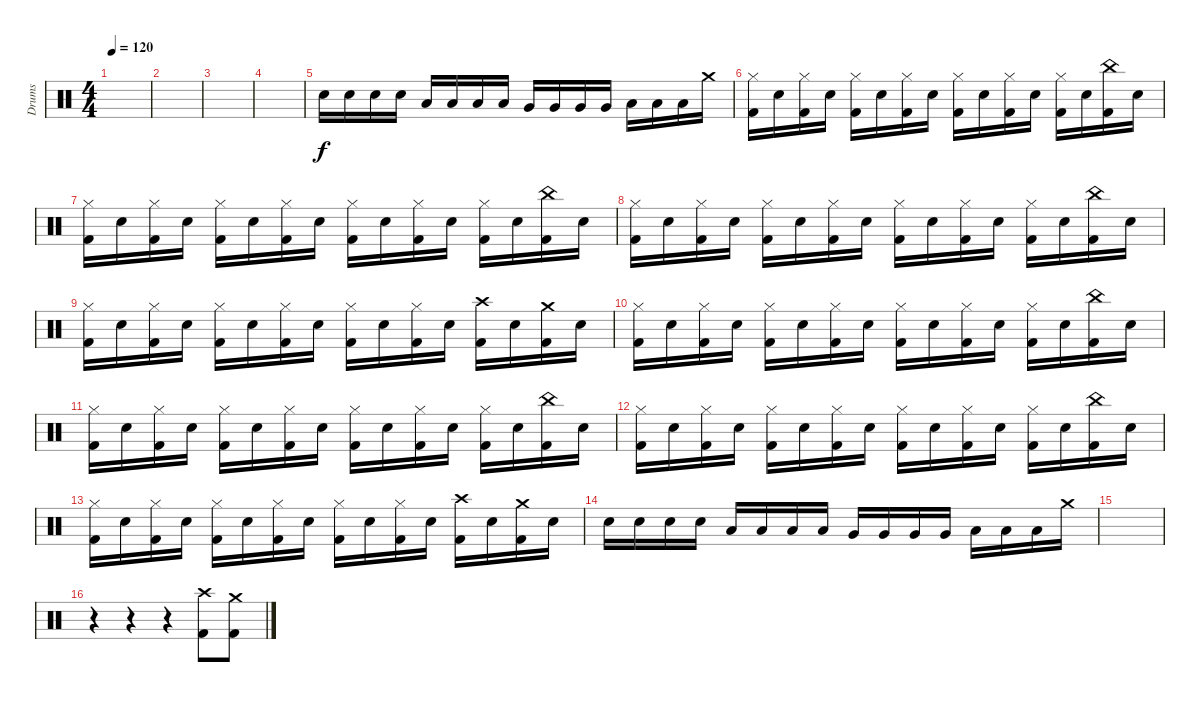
\track ("Drums" "Drums") {instrument percussion}
\staff {score}
\articulation defaults
\ts (4 4)
\tempo 120
\clef neutral
\ks c
|
|
|
|
"Snare (hit) 2".16 "Snare (hit) 2".16 "Snare (hit) 2".16 "Snare (hit) 2".16 "Low Tom (hit)".16 "Low Tom (hit)".16 "Low Tom (hit)".16 "Low Tom (hit)".16 "Very Low Tom (hit)".16 "Very Low Tom (hit)".16 "Very Low Tom (hit)".16 "Very Low Tom (hit)".16 "Low Floor Tom (hit)".16 "Low Floor Tom (hit)".16 "Low Floor Tom (hit)".16 "Crash medium (hit)".16 |
("Hi-Hat (closed)" "Kick (hit) 2").16 "Snare (hit) 2".16 ("Hi-Hat (closed)" "Kick (hit) 2").16 "Snare (hit) 2".16 ("Hi-Hat (closed)" "Kick (hit) 2").16 "Snare (hit) 2".16 ("Hi-Hat (closed)" "Kick (hit) 2").16 "Snare (hit) 2".16 ("Hi-Hat (closed)" "Kick (hit) 2").16 "Snare (hit) 2".16 ("Hi-Hat (closed)" "Kick (hit) 2").16 "Snare (hit) 2".16 ("Hi-Hat (closed)" "Kick (hit) 2").16 "Snare (hit) 2".16 ("China (hit)" "Kick (hit) 2").16 "Snare (hit) 2".16 |
("Hi-Hat (closed)" "Kick (hit) 2").16 "Snare (hit) 2".16 ("Hi-Hat (closed)" "Kick (hit) 2").16 "Snare (hit) 2".16 ("Hi-Hat (closed)" "Kick (hit) 2").16 "Snare (hit) 2".16 ("Hi-Hat (closed)" "Kick (hit) 2").16 "Snare (hit) 2".16 ("Hi-Hat (closed)" "Kick (hit) 2").16 "Snare (hit) 2".16 ("Hi-Hat (closed)" "Kick (hit) 2").16 "Snare (hit) 2".16 ("Hi-Hat (closed)" "Kick (hit) 2").16 "Snare (hit) 2".16 ("China (hit)" "Kick (hit) 2").16 "Snare (hit) 2".16 |
("Hi-Hat (closed)" "Kick (hit) 2").16 "Snare (hit) 2".16 ("Hi-Hat (closed)" "Kick (hit) 2").16 "Snare (hit) 2".16 ("Hi-Hat (closed)" "Kick (hit) 2").16 "Snare (hit) 2".16 ("Hi-Hat (closed)" "Kick (hit) 2").16 "Snare (hit) 2".16 ("Hi-Hat (closed)" "Kick (hit) 2").16 "Snare (hit) 2".16 ("Hi-Hat (closed)" "Kick (hit) 2").16 "Snare (hit) 2".16 ("Hi-Hat (closed)" "Kick (hit) 2").16 "Snare (hit) 2".16 ("China (hit)" "Kick (hit) 2").16 "Snare (hit) 2".16 |
("Hi-Hat (closed)" "Kick (hit) 2").16 "Snare (hit) 2".16 ("Hi-Hat (closed)" "Kick (hit) 2").16 "Snare (hit) 2".16 ("Hi-Hat (closed)" "Kick (hit) 2").16 "Snare (hit) 2".16 ("Hi-Hat (closed)" "Kick (hit) 2").16 "Snare (hit) 2".16 ("Hi-Hat (closed)" "Kick (hit) 2").16 "Snare (hit) 2".16 ("Hi-Hat (closed)" "Kick (hit) 2").16 "Snare (hit) 2".16 ("Crash high (hit)" "Kick (hit) 2").16 "Snare (hit) 2".16 ("Crash medium (hit)" "Kick (hit) 2").16 "Snare (hit) 2".16 |
("Hi-Hat (closed)" "Kick (hit) 2").16 "Snare (hit) 2".16 ("Hi-Hat (closed)" "Kick (hit) 2").16 "Snare (hit) 2".16 ("Hi-Hat (closed)" "Kick (hit) 2").16 "Snare (hit) 2".16 ("Hi-Hat (closed)" "Kick (hit) 2").16 "Snare (hit) 2".16 ("Hi-Hat (closed)" "Kick (hit) 2").16 "Snare (hit) 2".16 ("Hi-Hat (closed)" "Kick (hit) 2").16 "Snare (hit) 2".16 ("Hi-Hat (closed)" "Kick (hit) 2").16 "Snare (hit) 2".16 ("China (hit)" "Kick (hit) 2").16 "Snare (hit) 2".16 |
("Hi-Hat (closed)" "Kick (hit) 2").16 "Snare (hit) 2".16 ("Hi-Hat (closed)" "Kick (hit) 2").16 "Snare (hit) 2".16 ("Hi-Hat (closed)" "Kick (hit) 2").16 "Snare (hit) 2".16 ("Hi-Hat (closed)" "Kick (hit) 2").16 "Snare (hit) 2".16 ("Hi-Hat (closed)" "Kick (hit) 2").16 "Snare (hit) 2".16 ("Hi-Hat (closed)" "Kick (hit) 2").16 "Snare (hit) 2".16 ("Hi-Hat (closed)" "Kick (hit) 2").16 "Snare (hit) 2".16 ("China (hit)" "Kick (hit) 2").16 "Snare (hit) 2".16 |
("Hi-Hat (closed)" "Kick (hit) 2").16 "Snare (hit) 2".16 ("Hi-Hat (closed)" "Kick (hit) 2").16 "Snare (hit) 2".16 ("Hi-Hat (closed)" "Kick (hit) 2").16 "Snare (hit) 2".16 ("Hi-Hat (closed)" "Kick (hit) 2").16 "Snare (hit) 2".16 ("Hi-Hat (closed)" "Kick (hit) 2").16 "Snare (hit) 2".16 ("Hi-Hat (closed)" "Kick (hit) 2").16 "Snare (hit) 2".16 ("Hi-Hat (closed)" "Kick (hit) 2").16 "Snare (hit) 2".16 ("China (hit)" "Kick (hit) 2").16 "Snare (hit) 2".16 |
("Hi-Hat (closed)" "Kick (hit) 2").16 "Snare (hit) 2".16 ("Hi-Hat (closed)" "Kick (hit) 2").16 "Snare (hit) 2".16 ("Hi-Hat (closed)" "Kick (hit) 2").16 "Snare (hit) 2".16 ("Hi-Hat (closed)" "Kick (hit) 2").16 "Snare (hit) 2".16 ("Hi-Hat (closed)" "Kick (hit) 2").16 "Snare (hit) 2".16 ("Hi-Hat (closed)" "Kick (hit) 2").16 "Snare (hit) 2".16 ("Crash high (hit)" "Kick (hit) 2").16 "Snare (hit) 2".16 ("Crash medium (hit)" "Kick (hit) 2").16 "Snare (hit) 2".16 |
"Snare (hit) 2".16 "Snare (hit) 2".16 "Snare (hit) 2".16 "Snare (hit) 2".16 "Low Tom (hit)".16 "Low Tom (hit)".16 "Low Tom (hit)".16 "Low Tom (hit)".16 "Very Low Tom (hit)".16 "Very Low Tom (hit)".16 "Very Low Tom (hit)".16 "Very Low Tom (hit)".16 "Low Floor Tom (hit)".16 "Low Floor Tom (hit)".16 "Low Floor Tom (hit)".16 "Crash medium (hit)".16 |
|
r.4 r.4 r.4 ("Kick (hit) 2" "Crash high (hit)").8 ("Kick (hit) 2" "Crash medium (hit)").8
